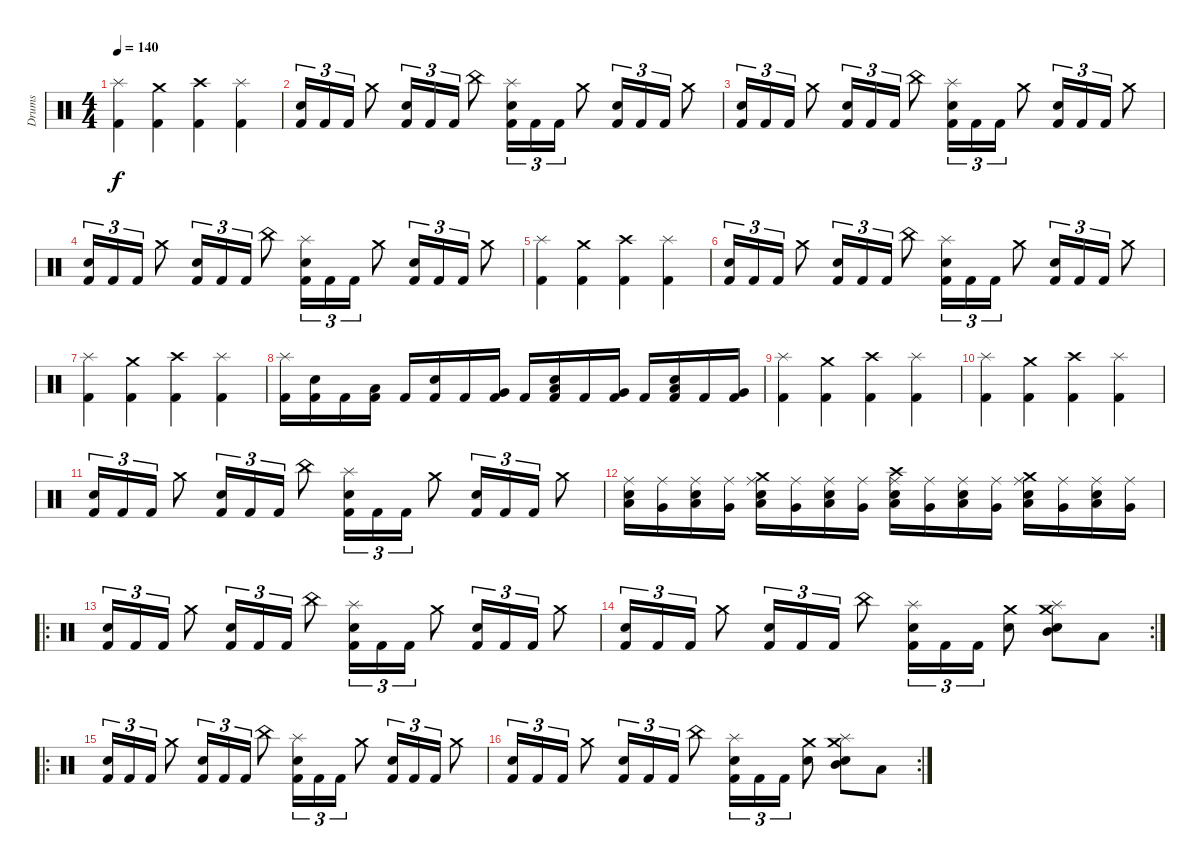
\track ("Drums" "Drums") {instrument percussion}
\staff {score}
\articulation defaults
\ts (4 4)
\tempo 140
\clef neutral
\ks c
("Splash (hit)" "Kick (hit) 2").4{dy f} ("Crash medium (hit)" "Kick (hit) 2").4 ("Crash high (hit)" "Kick (hit) 2").4 ("Splash (hit)" "Kick (hit) 2").4 |
("Snare (hit) 2" "Kick (hit) 2").16{tu (3 2)} "Kick (hit) 2".16{tu (3 2)} "Kick (hit) 2".16{tu (3 2)} "Crash medium (hit)".8 ("Snare (hit) 2" "Kick (hit) 2").16{tu (3 2)} "Kick (hit) 2".16{tu (3 2)} "Kick (hit) 2".16{tu (3 2)} "China (hit)".8 ("Snare (hit) 2" "Splash (hit)" "Kick (hit) 2").16{tu (3 2)} "Kick (hit) 2".16{tu (3 2)} "Kick (hit) 2".16{tu (3 2)} "Crash medium (hit)".8 ("Snare (hit) 2" "Kick (hit) 2").16{tu (3 2)} "Kick (hit) 2".16{tu (3 2)} "Kick (hit) 2".16{tu (3 2)} "Crash medium (hit)".8 |
("Snare (hit) 2" "Kick (hit) 2").16{tu (3 2)} "Kick (hit) 2".16{tu (3 2)} "Kick (hit) 2".16{tu (3 2)} "Crash medium (hit)".8 ("Snare (hit) 2" "Kick (hit) 2").16{tu (3 2)} "Kick (hit) 2".16{tu (3 2)} "Kick (hit) 2".16{tu (3 2)} "China (hit)".8 ("Snare (hit) 2" "Splash (hit)" "Kick (hit) 2").16{tu (3 2)} "Kick (hit) 2".16{tu (3 2)} "Kick (hit) 2".16{tu (3 2)} "Crash medium (hit)".8 ("Snare (hit) 2" "Kick (hit) 2").16{tu (3 2)} "Kick (hit) 2".16{tu (3 2)} "Kick (hit) 2".16{tu (3 2)} "Crash medium (hit)".8 |
("Snare (hit) 2" "Kick (hit) 2").16{tu (3 2)} "Kick (hit) 2".16{tu (3 2)} "Kick (hit) 2".16{tu (3 2)} "Crash medium (hit)".8 ("Snare (hit) 2" "Kick (hit) 2").16{tu (3 2)} "Kick (hit) 2".16{tu (3 2)} "Kick (hit) 2".16{tu (3 2)} "China (hit)".8 ("Snare (hit) 2" "Splash (hit)" "Kick (hit) 2").16{tu (3 2)} "Kick (hit) 2".16{tu (3 2)} "Kick (hit) 2".16{tu (3 2)} "Crash medium (hit)".8 ("Snare (hit) 2" "Kick (hit) 2").16{tu (3 2)} "Kick (hit) 2".16{tu (3 2)} "Kick (hit) 2".16{tu (3 2)} "Crash medium (hit)".8 |
("Splash (hit)" "Kick (hit) 2").4 ("Crash medium (hit)" "Kick (hit) 2").4 ("Crash high (hit)" "Kick (hit) 2").4 ("Splash (hit)" "Kick (hit) 2").4 |
("Snare (hit) 2" "Kick (hit) 2").16{tu (3 2)} "Kick (hit) 2".16{tu (3 2)} "Kick (hit) 2".16{tu (3 2)} "Crash medium (hit)".8 ("Snare (hit) 2" "Kick (hit) 2").16{tu (3 2)} "Kick (hit) 2".16{tu (3 2)} "Kick (hit) 2".16{tu (3 2)} "China (hit)".8 ("Snare (hit) 2" "Splash (hit)" "Kick (hit) 2").16{tu (3 2)} "Kick (hit) 2".16{tu (3 2)} "Kick (hit) 2".16{tu (3 2)} "Crash medium (hit)".8 ("Snare (hit) 2" "Kick (hit) 2").16{tu (3 2)} "Kick (hit) 2".16{tu (3 2)} "Kick (hit) 2".16{tu (3 2)} "Crash medium (hit)".8 |
("Splash (hit)" "Kick (hit) 2").4 ("Crash medium (hit)" "Kick (hit) 2").4 ("Crash high (hit)" "Kick (hit) 2").4 ("Splash (hit)" "Kick (hit) 2").4 |
("Splash (hit)" "Kick (hit) 2").16 ("Snare (hit) 2" "Kick (hit) 2").16 "Kick (hit) 2".16 ("Low Floor Tom (hit)" "Kick (hit) 2").16 "Kick (hit) 2".16 ("Snare (hit) 2" "Kick (hit) 2").16 "Kick (hit) 2".16 ("Very Low Tom (hit)" "Kick (hit) 2").16 "Kick (hit) 2".16 ("Snare (hit) 2" "Low Floor Tom (hit)" "Kick (hit) 2").16 "Kick (hit) 2".16 ("Very Low Tom (hit)" "Kick (hit) 2").16 "Kick (hit) 2".16 ("Snare (hit) 2" "Low Floor Tom (hit)" "Kick (hit) 2").16 "Kick (hit) 2".16 ("Very Low Tom (hit)" "Kick (hit) 2").16 |
("Splash (hit)" "Kick (hit) 2").4 ("Crash medium (hit)" "Kick (hit) 2").4 ("Crash high (hit)" "Kick (hit) 2").4 ("Splash (hit)" "Kick (hit) 2").4 |
("Splash (hit)" "Kick (hit) 2").4 ("Crash medium (hit)" "Kick (hit) 2").4 ("Crash high (hit)" "Kick (hit) 2").4 ("Splash (hit)" "Kick (hit) 2").4 |
("Snare (hit) 2" "Kick (hit) 2").16{tu (3 2)} "Kick (hit) 2".16{tu (3 2)} "Kick (hit) 2".16{tu (3 2)} "Crash medium (hit)".8 ("Snare (hit) 2" "Kick (hit) 2").16{tu (3 2)} "Kick (hit) 2".16{tu (3 2)} "Kick (hit) 2".16{tu (3 2)} "China (hit)".8 ("Snare (hit) 2" "Splash (hit)" "Kick (hit) 2").16{tu (3 2)} "Kick (hit) 2".16{tu (3 2)} "Kick (hit) 2".16{tu (3 2)} "Crash medium (hit)".8 ("Snare (hit) 2" "Kick (hit) 2").16{tu (3 2)} "Kick (hit) 2".16{tu (3 2)} "Kick (hit) 2".16{tu (3 2)} "Crash medium (hit)".8 |
("Ride (middle)" "Low Floor Tom (hit)" "Snare (hit) 2").16 ("Ride (middle)" "Very Low Tom (hit)").16 ("Ride (middle)" "Low Floor Tom (hit)" "Snare (hit) 2").16 ("Ride (middle)" "Very Low Tom (hit)").16 ("Ride (middle)" "Crash medium (hit)" "Low Floor Tom (hit)" "Snare (hit) 2").16 ("Ride (middle)" "Very Low Tom (hit)").16 ("Ride (middle)" "Low Floor Tom (hit)" "Snare (hit) 2").16 ("Ride (middle)" "Very Low Tom (hit)").16 ("Ride (middle)" "Crash high (hit)" "Low Floor Tom (hit)" "Snare (hit) 2").16 ("Ride (middle)" "Very Low Tom (hit)").16 ("Ride (middle)" "Low Floor Tom (hit)" "Snare (hit) 2").16 ("Ride (middle)" "Very Low Tom (hit)").16 ("Ride (middle)" "Crash medium (hit)" "Low Floor Tom (hit)" "Snare (hit) 2").16 ("Ride (middle)" "Very Low Tom (hit)").16 ("Ride (middle)" "Low Floor Tom (hit)" "Snare (hit) 2").16 ("Ride (middle)" "Very Low Tom (hit)").16 |
\ro
("Snare (hit) 2" "Kick (hit) 2").16{tu (3 2)} "Kick (hit) 2".16{tu (3 2)} "Kick (hit) 2".16{tu (3 2)} "Crash medium (hit)".8 ("Snare (hit) 2" "Kick (hit) 2").16{tu (3 2)} "Kick (hit) 2".16{tu (3 2)} "Kick (hit) 2".16{tu (3 2)} "China (hit)".8 ("Snare (hit) 2" "Splash (hit)" "Kick (hit) 2").16{tu (3 2)} "Kick (hit) 2".16{tu (3 2)} "Kick (hit) 2".16{tu (3 2)} "Crash medium (hit)".8 ("Snare (hit) 2" "Kick (hit) 2").16{tu (3 2)} "Kick (hit) 2".16{tu (3 2)} "Kick (hit) 2".16{tu (3 2)} "Crash medium (hit)".8 |
\rc 2
("Snare (hit) 2" "Kick (hit) 2").16{tu (3 2)} "Kick (hit) 2".16{tu (3 2)} "Kick (hit) 2".16{tu (3 2)} "Crash medium (hit)".8 ("Snare (hit) 2" "Kick (hit) 2").16{tu (3 2)} "Kick (hit) 2".16{tu (3 2)} "Kick (hit) 2".16{tu (3 2)} "China (hit)".8 ("Snare (hit) 2" "Splash (hit)" "Kick (hit) 2").16{tu (3 2)} "Kick (hit) 2".16{tu (3 2)} "Kick (hit) 2".16{tu (3 2)} ("Snare (hit) 2" "Crash medium (hit)").8 ("Crash medium (hit)" "Mid Tom (hit)" "Snare (hit) 2" "Splash (hit)").8 "Low Floor Tom (hit)".8 |
\ro
("Snare (hit) 2" "Kick (hit) 2").16{tu (3 2)} "Kick (hit) 2".16{tu (3 2)} "Kick (hit) 2".16{tu (3 2)} "Crash medium (hit)".8 ("Snare (hit) 2" "Kick (hit) 2").16{tu (3 2)} "Kick (hit) 2".16{tu (3 2)} "Kick (hit) 2".16{tu (3 2)} "China (hit)".8 ("Snare (hit) 2" "Splash (hit)" "Kick (hit) 2").16{tu (3 2)} "Kick (hit) 2".16{tu (3 2)} "Kick (hit) 2".16{tu (3 2)} "Crash medium (hit)".8 ("Snare (hit) 2" "Kick (hit) 2").16{tu (3 2)} "Kick (hit) 2".16{tu (3 2)} "Kick (hit) 2".16{tu (3 2)} "Crash medium (hit)".8 |
\rc 2
("Snare (hit) 2" "Kick (hit) 2").16{tu (3 2)} "Kick (hit) 2".16{tu (3 2)} "Kick (hit) 2".16{tu (3 2)} "Crash medium (hit)".8 ("Snare (hit) 2" "Kick (hit) 2").16{tu (3 2)} "Kick (hit) 2".16{tu (3 2)} "Kick (hit) 2".16{tu (3 2)} "China (hit)".8 ("Snare (hit) 2" "Splash (hit)" "Kick (hit) 2").16{tu (3 2)} "Kick (hit) 2".16{tu (3 2)} "Kick (hit) 2".16{tu (3 2)} ("Snare (hit) 2" "Crash medium (hit)").8 ("Crash medium (hit)" "Mid Tom (hit)" "Snare (hit) 2" "Splash (hit)").8 "Low Floor Tom (hit)".8
